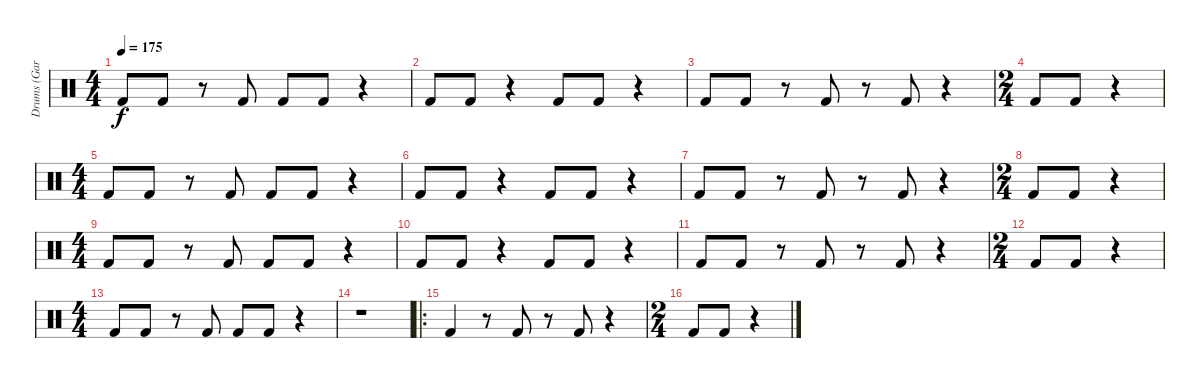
\track ("Drums (Gar Samuelson)" "Drums (Gar") {instrument percussion}
\staff {score}
\articulation defaults
\ts (4 4)
\tempo 175
\clef neutral
\ks c "Kick (hit) 2".8{dy f} "Kick (hit) 2".8
r.8 "Kick (hit) 2".8 "Kick (hit) 2".8 "Kick (hit) 2".8 r.4 |
"Kick (hit) 2".8 "Kick (hit) 2".8 r.4 "Kick (hit) 2".8 "Kick (hit) 2".8 r.4 |
"Kick (hit) 2".8 "Kick (hit) 2".8 r.8 "Kick (hit) 2".8 r.8 "Kick (hit) 2".8 r.4 |
\ts (2 4)
"Kick (hit) 2".8 "Kick (hit) 2".8 r.4 |
\ts (4 4)
"Kick (hit) 2".8 "Kick (hit) 2".8 r.8 "Kick (hit) 2".8 "Kick (hit) 2".8 "Kick (hit) 2".8 r.4 |
"Kick (hit) 2".8 "Kick (hit) 2".8 r.4 "Kick (hit) 2".8 "Kick (hit) 2".8 r.4 |
"Kick (hit) 2".8 "Kick (hit) 2".8 r.8 "Kick (hit) 2".8 r.8 "Kick (hit) 2".8 r.4 |
\ts (2 4)
"Kick (hit) 2".8 "Kick (hit) 2".8 r.4 |
\ts (4 4)
"Kick (hit) 2".8 "Kick (hit) 2".8 r.8 "Kick (hit) 2".8 "Kick (hit) 2".8 "Kick (hit) 2".8 r.4 |
"Kick (hit) 2".8 "Kick (hit) 2".8 r.4 "Kick (hit) 2".8 "Kick (hit) 2".8 r.4 |
"Kick (hit) 2".8 "Kick (hit) 2".8 r.8 "Kick (hit) 2".8 r.8 "Kick (hit) 2".8 r.4 |
\ts (2 4)
"Kick (hit) 2".8 "Kick (hit) 2".8 r.4 |
\ts (4 4)
"Kick (hit) 2".8 "Kick (hit) 2".8 r.8 "Kick (hit) 2".8 "Kick (hit) 2".8 "Kick (hit) 2".8 r.4 |
r.1 |
\ro "Kick (hit) 2".4
r.8 "Kick (hit) 2".8 r.8 "Kick (hit) 2".8 r.4 |
\ts (2 4)
"Kick (hit) 2".8 "Kick (hit) 2".8 r.4
